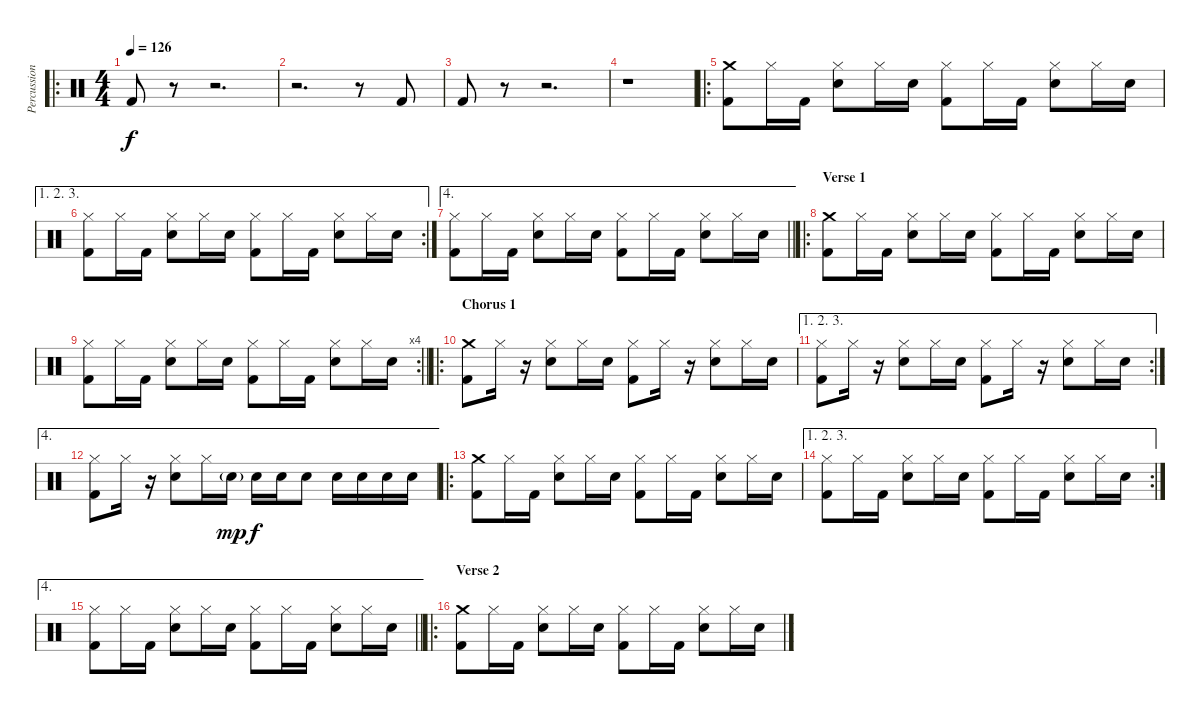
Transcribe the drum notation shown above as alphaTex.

\track ("Percussions" "Percussion") {instrument percussion}
\staff {score}
\articulation defaults
\ro
\ts (4 4)
\tempo 126
\clef neutral
\ks c "Kick (hit) 2".8{dy f}
r.8 r.2{d} |
r.2{d} r.8 "Kick (hit) 2".8 |
"Kick (hit) 2".8 r.8 r.2{d} |
r.1 |
\ro
("Crash medium (hit)" "Kick (hit) 2").8 "Hi-Hat (closed)".16 "Kick (hit) 2".16 ("Hi-Hat (closed)" "Electric Snare (hit)").8 "Hi-Hat (closed)".16 "Electric Snare (hit)".16 ("Hi-Hat (closed)" "Kick (hit) 2").8 "Hi-Hat (closed)".16 "Kick (hit) 2".16 ("Hi-Hat (closed)" "Electric Snare (hit)").8 "Hi-Hat (closed)".16 "Electric Snare (hit)".16 |
\ae (1 2 3)
\rc 2
("Hi-Hat (closed)" "Kick (hit) 2").8 "Hi-Hat (closed)".16 "Kick (hit) 2".16 ("Hi-Hat (closed)" "Electric Snare (hit)").8 "Hi-Hat (closed)".16 "Electric Snare (hit)".16 ("Hi-Hat (closed)" "Kick (hit) 2").8 "Hi-Hat (closed)".16 "Kick (hit) 2".16 ("Hi-Hat (closed)" "Electric Snare (hit)").8 "Hi-Hat (closed)".16 "Electric Snare (hit)".16 |
\ae 4
\barLineRight lightlight
("Hi-Hat (closed)" "Kick (hit) 2").8 "Hi-Hat (closed)".16 "Kick (hit) 2".16 ("Hi-Hat (closed)" "Electric Snare (hit)").8 "Hi-Hat (closed)".16 "Electric Snare (hit)".16 ("Hi-Hat (closed)" "Kick (hit) 2").8 "Hi-Hat (closed)".16 "Kick (hit) 2".16 ("Hi-Hat (closed)" "Electric Snare (hit)").8 "Hi-Hat (closed)".16 "Electric Snare (hit)".16 |
\ro
\section ("" "Verse 1")
("Crash medium (hit)" "Kick (hit) 2").8 "Hi-Hat (closed)".16 "Kick (hit) 2".16 ("Hi-Hat (closed)" "Electric Snare (hit)").8 "Hi-Hat (closed)".16 "Electric Snare (hit)".16 ("Hi-Hat (closed)" "Kick (hit) 2").8 "Hi-Hat (closed)".16 "Kick (hit) 2".16 ("Hi-Hat (closed)" "Electric Snare (hit)").8 "Hi-Hat (closed)".16 "Electric Snare (hit)".16 |
\rc 4
\barLineRight lightlight
("Hi-Hat (closed)" "Kick (hit) 2").8 "Hi-Hat (closed)".16 "Kick (hit) 2".16 ("Hi-Hat (closed)" "Electric Snare (hit)").8 "Hi-Hat (closed)".16 "Electric Snare (hit)".16 ("Hi-Hat (closed)" "Kick (hit) 2").8 "Hi-Hat (closed)".16 "Kick (hit) 2".16 ("Hi-Hat (closed)" "Electric Snare (hit)").8 "Hi-Hat (closed)".16 "Electric Snare (hit)".16 |
\ro
\section ("" "Chorus 1")
("Crash medium (hit)" "Kick (hit) 2").8 "Hi-Hat (closed)".16 r.16 ("Hi-Hat (closed)" "Electric Snare (hit)").8 "Hi-Hat (closed)".16 "Electric Snare (hit)".16 ("Hi-Hat (closed)" "Kick (hit) 2").8 "Hi-Hat (closed)".16 r.16 ("Hi-Hat (closed)" "Electric Snare (hit)").8 "Hi-Hat (closed)".16 "Electric Snare (hit)".16 |
\ae (1 2 3)
\rc 2
("Hi-Hat (closed)" "Kick (hit) 2").8 "Hi-Hat (closed)".16 r.16 ("Hi-Hat (closed)" "Electric Snare (hit)").8 "Hi-Hat (closed)".16 "Electric Snare (hit)".16 ("Hi-Hat (closed)" "Kick (hit) 2").8 "Hi-Hat (closed)".16 r.16 ("Hi-Hat (closed)" "Electric Snare (hit)").8 "Hi-Hat (closed)".16 "Electric Snare (hit)".16 |
\ae 4
("Hi-Hat (closed)" "Kick (hit) 2").8 "Hi-Hat (closed)".16 r.16 ("Hi-Hat (closed)" "Electric Snare (hit)").8 "Hi-Hat (closed)".16 "Electric Snare (hit)"{g}.16{dy mp} "Electric Snare (hit)".16{dy f} "Electric Snare (hit)".16 "Electric Snare (hit)".8 "Electric Snare (hit)".16 "Electric Snare (hit)".16 "Electric Snare (hit)".16 "Electric Snare (hit)".16 |
\ro
("Crash medium (hit)" "Kick (hit) 2").8 "Hi-Hat (closed)".16 "Kick (hit) 2".16 ("Hi-Hat (closed)" "Electric Snare (hit)").8 "Hi-Hat (closed)".16 "Electric Snare (hit)".16 ("Hi-Hat (closed)" "Kick (hit) 2").8 "Hi-Hat (closed)".16 "Kick (hit) 2".16 ("Hi-Hat (closed)" "Electric Snare (hit)").8 "Hi-Hat (closed)".16 "Electric Snare (hit)".16 |
\ae (1 2 3)
\rc 2
("Hi-Hat (closed)" "Kick (hit) 2").8 "Hi-Hat (closed)".16 "Kick (hit) 2".16 ("Hi-Hat (closed)" "Electric Snare (hit)").8 "Hi-Hat (closed)".16 "Electric Snare (hit)".16 ("Hi-Hat (closed)" "Kick (hit) 2").8 "Hi-Hat (closed)".16 "Kick (hit) 2".16 ("Hi-Hat (closed)" "Electric Snare (hit)").8 "Hi-Hat (closed)".16 "Electric Snare (hit)".16 |
\ae 4
\barLineRight lightlight
("Hi-Hat (closed)" "Kick (hit) 2").8 "Hi-Hat (closed)".16 "Kick (hit) 2".16 ("Hi-Hat (closed)" "Electric Snare (hit)").8 "Hi-Hat (closed)".16 "Electric Snare (hit)".16 ("Hi-Hat (closed)" "Kick (hit) 2").8 "Hi-Hat (closed)".16 "Kick (hit) 2".16 ("Hi-Hat (closed)" "Electric Snare (hit)").8 "Hi-Hat (closed)".16 "Electric Snare (hit)".16 |
\ro
\section ("" "Verse 2")
("Crash medium (hit)" "Kick (hit) 2").8 "Hi-Hat (closed)".16 "Kick (hit) 2".16 ("Hi-Hat (closed)" "Electric Snare (hit)").8 "Hi-Hat (closed)".16 "Electric Snare (hit)".16 ("Hi-Hat (closed)" "Kick (hit) 2").8 "Hi-Hat (closed)".16 "Kick (hit) 2".16 ("Hi-Hat (closed)" "Electric Snare (hit)").8 "Hi-Hat (closed)".16 "Electric Snare (hit)".16
